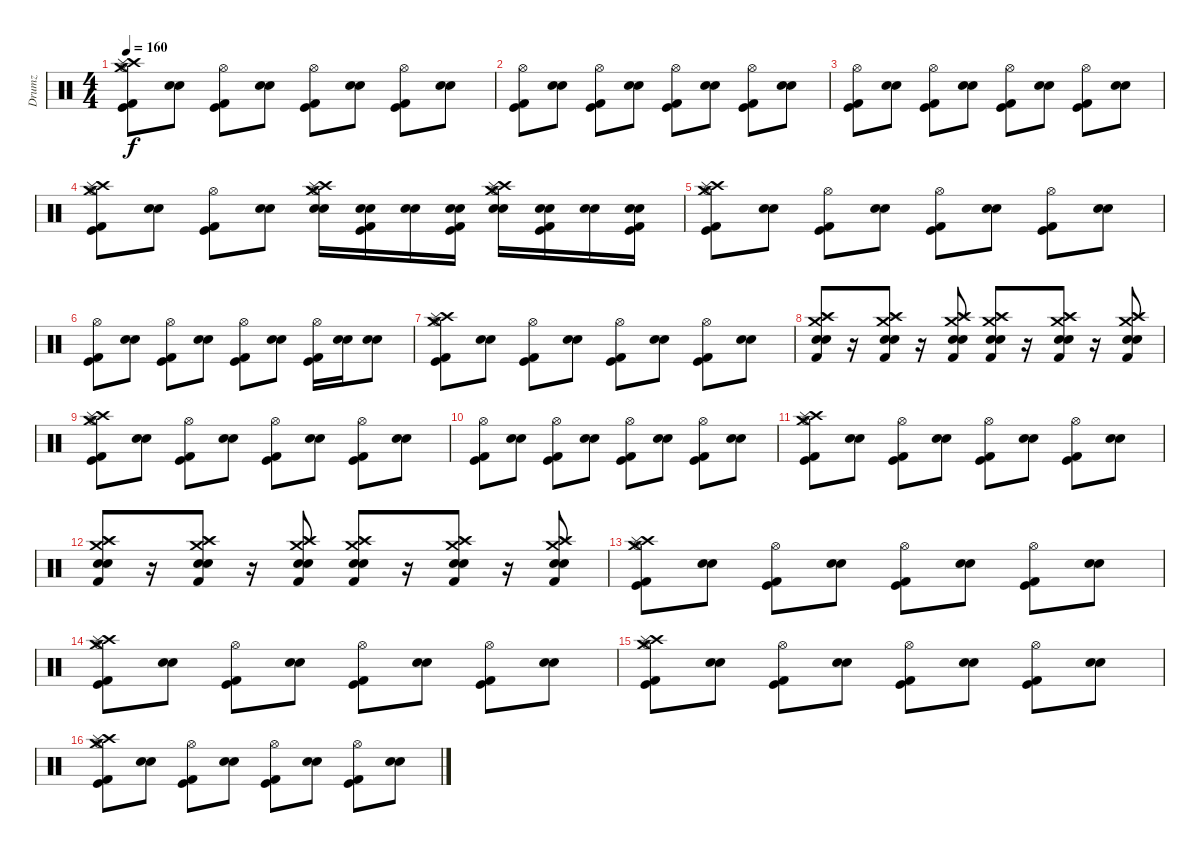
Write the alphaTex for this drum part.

\track ("Drumz" "Drumz") {instrument percussion}
\staff {score}
\articulation defaults
\ts (4 4)
\tempo 160
\clef neutral
\ks c
("Kick (hit)" "Kick (hit) 2" "Hi-Hat (open)" "Crash high (hit)" "Crash medium (hit)" "Splash (hit)").8{dy f volume 12} ("Electric Snare (hit)" "Snare (hit) 2").8 ("Kick (hit) 2" "Kick (hit)" "Hi-Hat (open)").8 ("Snare (hit) 2" "Electric Snare (hit)").8 ("Kick (hit) 2" "Kick (hit)" "Hi-Hat (open)").8 ("Electric Snare (hit)" "Snare (hit) 2").8 ("Kick (hit)" "Kick (hit) 2" "Hi-Hat (open)").8 ("Snare (hit) 2" "Electric Snare (hit)").8 |
("Kick (hit)" "Kick (hit) 2" "Hi-Hat (open)").8 ("Electric Snare (hit)" "Snare (hit) 2").8 ("Kick (hit) 2" "Kick (hit)" "Hi-Hat (open)").8 ("Snare (hit) 2" "Electric Snare (hit)").8 ("Kick (hit) 2" "Kick (hit)" "Hi-Hat (open)").8 ("Electric Snare (hit)" "Snare (hit) 2").8 ("Kick (hit)" "Kick (hit) 2" "Hi-Hat (open)").8 ("Snare (hit) 2" "Electric Snare (hit)").8 |
("Kick (hit)" "Kick (hit) 2" "Hi-Hat (open)").8 ("Electric Snare (hit)" "Snare (hit) 2").8 ("Kick (hit) 2" "Kick (hit)" "Hi-Hat (open)").8 ("Snare (hit) 2" "Electric Snare (hit)").8 ("Kick (hit) 2" "Kick (hit)" "Hi-Hat (open)").8 ("Electric Snare (hit)" "Snare (hit) 2").8 ("Kick (hit)" "Kick (hit) 2" "Hi-Hat (open)").8 ("Snare (hit) 2" "Electric Snare (hit)").8 |
("Kick (hit)" "Kick (hit) 2" "Hi-Hat (open)" "Crash high (hit)" "Splash (hit)" "Crash medium (hit)").8 ("Electric Snare (hit)" "Snare (hit) 2").8 ("Kick (hit) 2" "Kick (hit)" "Hi-Hat (open)").8 ("Snare (hit) 2" "Electric Snare (hit)").8 ("Crash medium (hit)" "Electric Snare (hit)" "Hi-Hat (open)" "Crash high (hit)" "Splash (hit)" "Snare (hit) 2").16 ("Kick (hit) 2" "Kick (hit)" "Electric Snare (hit)" "Snare (hit) 2").16 ("Electric Snare (hit)" "Snare (hit) 2").16 ("Snare (hit) 2" "Electric Snare (hit)" "Kick (hit) 2" "Kick (hit)").16 ("Crash medium (hit)" "Snare (hit) 2" "Hi-Hat (open)" "Crash high (hit)" "Splash (hit)" "Electric Snare (hit)").16 ("Kick (hit)" "Kick (hit) 2" "Snare (hit) 2" "Electric Snare (hit)").16 ("Snare (hit) 2" "Electric Snare (hit)").16 ("Electric Snare (hit)" "Snare (hit) 2" "Kick (hit) 2" "Kick (hit)").16 |
("Kick (hit)" "Kick (hit) 2" "Hi-Hat (open)" "Crash high (hit)" "Crash medium (hit)" "Splash (hit)").8{volume 12} ("Electric Snare (hit)" "Snare (hit) 2").8 ("Kick (hit) 2" "Kick (hit)" "Hi-Hat (open)").8 ("Snare (hit) 2" "Electric Snare (hit)").8 ("Kick (hit) 2" "Kick (hit)" "Hi-Hat (open)").8 ("Electric Snare (hit)" "Snare (hit) 2").8 ("Kick (hit)" "Kick (hit) 2" "Hi-Hat (open)").8 ("Snare (hit) 2" "Electric Snare (hit)").8 |
("Kick (hit)" "Kick (hit) 2" "Hi-Hat (open)").8 ("Electric Snare (hit)" "Snare (hit) 2").8 ("Kick (hit) 2" "Kick (hit)" "Hi-Hat (open)").8 ("Snare (hit) 2" "Electric Snare (hit)").8 ("Kick (hit) 2" "Kick (hit)" "Hi-Hat (open)").8 ("Electric Snare (hit)" "Snare (hit) 2").8 ("Kick (hit)" "Kick (hit) 2" "Hi-Hat (open)").16 ("Snare (hit) 2" "Electric Snare (hit)").16 ("Snare (hit) 2" "Electric Snare (hit)").8 |
("Kick (hit)" "Kick (hit) 2" "Hi-Hat (open)" "Crash high (hit)" "Splash (hit)" "Crash medium (hit)").8 ("Electric Snare (hit)" "Snare (hit) 2").8 ("Kick (hit) 2" "Kick (hit)" "Hi-Hat (open)").8 ("Snare (hit) 2" "Electric Snare (hit)").8 ("Kick (hit) 2" "Kick (hit)" "Hi-Hat (open)").8 ("Electric Snare (hit)" "Snare (hit) 2").8 ("Kick (hit)" "Kick (hit) 2" "Hi-Hat (open)").8 ("Snare (hit) 2" "Electric Snare (hit)").8 |
("Snare (hit) 2" "Electric Snare (hit)" "Kick (hit) 2" "Crash high (hit)" "Splash (hit)" "Crash medium (hit)").8 r.16 ("Snare (hit) 2" "Electric Snare (hit)" "Kick (hit) 2" "Crash high (hit)" "Splash (hit)" "Crash medium (hit)").8 r.16 ("Kick (hit) 2" "Snare (hit) 2" "Electric Snare (hit)" "Crash high (hit)" "Splash (hit)" "Crash medium (hit)").8 ("Crash high (hit)" "Splash (hit)" "Crash medium (hit)" "Electric Snare (hit)" "Snare (hit) 2" "Kick (hit) 2").8 r.16 ("Crash high (hit)" "Splash (hit)" "Crash medium (hit)" "Electric Snare (hit)" "Snare (hit) 2" "Kick (hit) 2").8 r.16 ("Splash (hit)" "Crash medium (hit)" "Electric Snare (hit)" "Snare (hit) 2" "Kick (hit) 2" "Crash high (hit)").8 |
("Kick (hit)" "Kick (hit) 2" "Hi-Hat (open)" "Crash high (hit)" "Crash medium (hit)" "Splash (hit)").8{volume 12} ("Electric Snare (hit)" "Snare (hit) 2").8 ("Kick (hit) 2" "Kick (hit)" "Hi-Hat (open)").8 ("Snare (hit) 2" "Electric Snare (hit)").8 ("Kick (hit) 2" "Kick (hit)" "Hi-Hat (open)").8 ("Electric Snare (hit)" "Snare (hit) 2").8 ("Kick (hit)" "Kick (hit) 2" "Hi-Hat (open)").8 ("Snare (hit) 2" "Electric Snare (hit)").8 |
("Kick (hit)" "Kick (hit) 2" "Hi-Hat (open)").8 ("Electric Snare (hit)" "Snare (hit) 2").8 ("Kick (hit) 2" "Kick (hit)" "Hi-Hat (open)").8 ("Snare (hit) 2" "Electric Snare (hit)").8 ("Kick (hit) 2" "Kick (hit)" "Hi-Hat (open)").8 ("Electric Snare (hit)" "Snare (hit) 2").8 ("Kick (hit)" "Kick (hit) 2" "Hi-Hat (open)").8 ("Snare (hit) 2" "Electric Snare (hit)").8 |
("Kick (hit)" "Kick (hit) 2" "Hi-Hat (open)" "Crash high (hit)" "Splash (hit)" "Crash medium (hit)").8 ("Electric Snare (hit)" "Snare (hit) 2").8 ("Kick (hit) 2" "Kick (hit)" "Hi-Hat (open)").8 ("Snare (hit) 2" "Electric Snare (hit)").8 ("Kick (hit) 2" "Kick (hit)" "Hi-Hat (open)").8 ("Electric Snare (hit)" "Snare (hit) 2").8 ("Kick (hit)" "Kick (hit) 2" "Hi-Hat (open)").8 ("Snare (hit) 2" "Electric Snare (hit)").8 |
("Snare (hit) 2" "Electric Snare (hit)" "Kick (hit) 2" "Crash high (hit)" "Splash (hit)" "Crash medium (hit)").8 r.16 ("Snare (hit) 2" "Electric Snare (hit)" "Kick (hit) 2" "Crash high (hit)" "Splash (hit)" "Crash medium (hit)").8 r.16 ("Kick (hit) 2" "Snare (hit) 2" "Electric Snare (hit)" "Crash high (hit)" "Splash (hit)" "Crash medium (hit)").8 ("Crash high (hit)" "Splash (hit)" "Crash medium (hit)" "Electric Snare (hit)" "Snare (hit) 2" "Kick (hit) 2").8 r.16 ("Crash high (hit)" "Splash (hit)" "Crash medium (hit)" "Electric Snare (hit)" "Snare (hit) 2" "Kick (hit) 2").8 r.16 ("Splash (hit)" "Crash medium (hit)" "Electric Snare (hit)" "Snare (hit) 2" "Kick (hit) 2" "Crash high (hit)").8 |
("Kick (hit)" "Kick (hit) 2" "Hi-Hat (open)" "Crash high (hit)" "Crash medium (hit)" "Splash (hit)").8{volume 12} ("Electric Snare (hit)" "Snare (hit) 2").8 ("Kick (hit) 2" "Kick (hit)" "Hi-Hat (open)").8 ("Snare (hit) 2" "Electric Snare (hit)").8 ("Kick (hit) 2" "Kick (hit)" "Hi-Hat (open)").8 ("Electric Snare (hit)" "Snare (hit) 2").8 ("Kick (hit)" "Kick (hit) 2" "Hi-Hat (open)").8 ("Snare (hit) 2" "Electric Snare (hit)").8 |
("Kick (hit)" "Kick (hit) 2" "Hi-Hat (open)" "Crash high (hit)" "Splash (hit)" "Crash medium (hit)").8 ("Electric Snare (hit)" "Snare (hit) 2").8 ("Kick (hit) 2" "Kick (hit)" "Hi-Hat (open)").8 ("Snare (hit) 2" "Electric Snare (hit)").8 ("Kick (hit) 2" "Kick (hit)" "Hi-Hat (open)").8 ("Electric Snare (hit)" "Snare (hit) 2").8 ("Kick (hit)" "Kick (hit) 2" "Hi-Hat (open)").8 ("Snare (hit) 2" "Electric Snare (hit)").8 |
("Kick (hit)" "Kick (hit) 2" "Hi-Hat (open)" "Crash high (hit)" "Crash medium (hit)" "Splash (hit)").8 ("Electric Snare (hit)" "Snare (hit) 2").8 ("Kick (hit) 2" "Kick (hit)" "Hi-Hat (open)").8 ("Snare (hit) 2" "Electric Snare (hit)").8 ("Kick (hit) 2" "Kick (hit)" "Hi-Hat (open)").8 ("Electric Snare (hit)" "Snare (hit) 2").8 ("Kick (hit)" "Kick (hit) 2" "Hi-Hat (open)").8 ("Snare (hit) 2" "Electric Snare (hit)").8 |
("Kick (hit)" "Kick (hit) 2" "Hi-Hat (open)" "Crash high (hit)" "Splash (hit)" "Crash medium (hit)").8 ("Electric Snare (hit)" "Snare (hit) 2").8 ("Kick (hit) 2" "Kick (hit)" "Hi-Hat (open)").8 ("Snare (hit) 2" "Electric Snare (hit)").8 ("Kick (hit) 2" "Kick (hit)" "Hi-Hat (open)").8 ("Electric Snare (hit)" "Snare (hit) 2").8 ("Kick (hit)" "Kick (hit) 2" "Hi-Hat (open)").8 ("Snare (hit) 2" "Electric Snare (hit)").8
